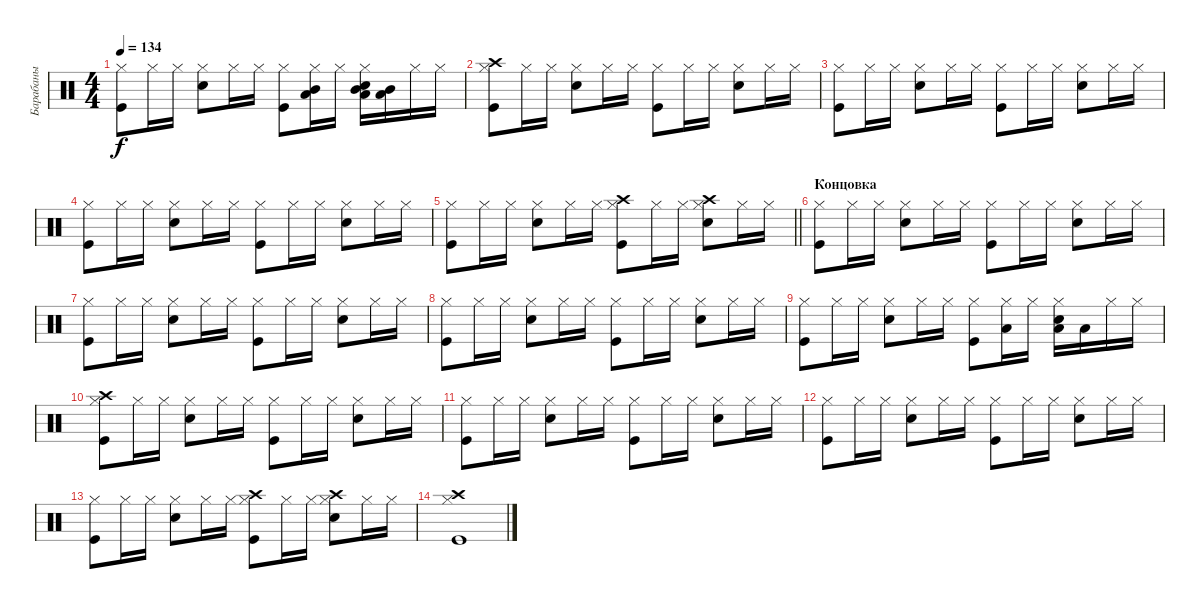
\track ("Барабаны" "Барабаны") {instrument percussion}
\staff {score}
\articulation defaults
\ts (4 4)
\tempo 134
\clef neutral
\ks c
("Kick (hit)" "Hi-Hat (closed)").8{dy f} "Hi-Hat (closed)".16 "Hi-Hat (closed)".16 ("Snare (hit) 2" "Hi-Hat (closed)").8 "Hi-Hat (closed)".16 "Hi-Hat (closed)".16 ("Kick (hit)" "Hi-Hat (closed)").8 ("Hi-Hat (closed)" "Low Tom (hit)" "Mid Tom (hit)").16 "Hi-Hat (closed)".16 ("Snare (hit) 2" "Hi-Hat (closed)" "Low Tom (hit)" "Mid Tom (hit)").16 ("Low Tom (hit)" "Mid Tom (hit)").16 "Hi-Hat (closed)".16 "Hi-Hat (closed)".16 |
("Kick (hit)" "Hi-Hat (closed)" "Crash high (hit)").8 "Hi-Hat (closed)".16 "Hi-Hat (closed)".16 ("Snare (hit) 2" "Hi-Hat (closed)").8 "Hi-Hat (closed)".16 "Hi-Hat (closed)".16 ("Kick (hit)" "Hi-Hat (closed)").8 "Hi-Hat (closed)".16 "Hi-Hat (closed)".16 ("Snare (hit) 2" "Hi-Hat (closed)").8 "Hi-Hat (closed)".16 "Hi-Hat (closed)".16 |
("Kick (hit)" "Hi-Hat (closed)").8 "Hi-Hat (closed)".16 "Hi-Hat (closed)".16 ("Snare (hit) 2" "Hi-Hat (closed)").8 "Hi-Hat (closed)".16 "Hi-Hat (closed)".16 ("Kick (hit)" "Hi-Hat (closed)").8 "Hi-Hat (closed)".16 "Hi-Hat (closed)".16 ("Snare (hit) 2" "Hi-Hat (closed)").8 "Hi-Hat (closed)".16 "Hi-Hat (closed)".16 |
("Kick (hit)" "Hi-Hat (closed)").8 "Hi-Hat (closed)".16 "Hi-Hat (closed)".16 ("Snare (hit) 2" "Hi-Hat (closed)").8 "Hi-Hat (closed)".16 "Hi-Hat (closed)".16 ("Kick (hit)" "Hi-Hat (closed)").8 "Hi-Hat (closed)".16 "Hi-Hat (closed)".16 ("Snare (hit) 2" "Hi-Hat (closed)").8 "Hi-Hat (closed)".16 "Hi-Hat (closed)".16 |
\barLineRight lightlight
("Kick (hit)" "Hi-Hat (closed)").8 "Hi-Hat (closed)".16 "Hi-Hat (closed)".16 ("Snare (hit) 2" "Hi-Hat (closed)").8 "Hi-Hat (closed)".16 "Hi-Hat (closed)".16 ("Kick (hit)" "Hi-Hat (closed)" "Crash high (hit)").8 "Hi-Hat (closed)".16 "Hi-Hat (closed)".16 ("Snare (hit) 2" "Hi-Hat (closed)" "Crash high (hit)").8 "Hi-Hat (closed)".16 "Hi-Hat (closed)".16 |
\section ("" "Концовка")
("Kick (hit)" "Hi-Hat (closed)").8 "Hi-Hat (closed)".16 "Hi-Hat (closed)".16 ("Snare (hit) 2" "Hi-Hat (closed)").8 "Hi-Hat (closed)".16 "Hi-Hat (closed)".16 ("Kick (hit)" "Hi-Hat (closed)").8 "Hi-Hat (closed)".16 "Hi-Hat (closed)".16 ("Snare (hit) 2" "Hi-Hat (closed)").8 "Hi-Hat (closed)".16 "Hi-Hat (closed)".16 |
("Kick (hit)" "Hi-Hat (closed)").8 "Hi-Hat (closed)".16 "Hi-Hat (closed)".16 ("Snare (hit) 2" "Hi-Hat (closed)").8 "Hi-Hat (closed)".16 "Hi-Hat (closed)".16 ("Kick (hit)" "Hi-Hat (closed)").8 "Hi-Hat (closed)".16 "Hi-Hat (closed)".16 ("Snare (hit) 2" "Hi-Hat (closed)").8 "Hi-Hat (closed)".16 "Hi-Hat (closed)".16 |
("Kick (hit)" "Hi-Hat (closed)").8 "Hi-Hat (closed)".16 "Hi-Hat (closed)".16 ("Snare (hit) 2" "Hi-Hat (closed)").8 "Hi-Hat (closed)".16 "Hi-Hat (closed)".16 ("Kick (hit)" "Hi-Hat (closed)").8 "Hi-Hat (closed)".16 "Hi-Hat (closed)".16 ("Snare (hit) 2" "Hi-Hat (closed)").8 "Hi-Hat (closed)".16 "Hi-Hat (closed)".16 |
("Kick (hit)" "Hi-Hat (closed)").8 "Hi-Hat (closed)".16 "Hi-Hat (closed)".16 ("Snare (hit) 2" "Hi-Hat (closed)").8 "Hi-Hat (closed)".16 "Hi-Hat (closed)".16 ("Kick (hit)" "Hi-Hat (closed)").8 ("Hi-Hat (closed)" "Low Tom (hit)").16 "Hi-Hat (closed)".16 ("Snare (hit) 2" "Hi-Hat (closed)" "Low Tom (hit)").16 "Low Tom (hit)".16 "Hi-Hat (closed)".16 "Hi-Hat (closed)".16 |
("Kick (hit)" "Hi-Hat (closed)" "Crash high (hit)").8 "Hi-Hat (closed)".16 "Hi-Hat (closed)".16 ("Snare (hit) 2" "Hi-Hat (closed)").8 "Hi-Hat (closed)".16 "Hi-Hat (closed)".16 ("Kick (hit)" "Hi-Hat (closed)").8 "Hi-Hat (closed)".16 "Hi-Hat (closed)".16 ("Snare (hit) 2" "Hi-Hat (closed)").8 "Hi-Hat (closed)".16 "Hi-Hat (closed)".16 |
("Kick (hit)" "Hi-Hat (closed)").8 "Hi-Hat (closed)".16 "Hi-Hat (closed)".16 ("Snare (hit) 2" "Hi-Hat (closed)").8 "Hi-Hat (closed)".16 "Hi-Hat (closed)".16 ("Kick (hit)" "Hi-Hat (closed)").8 "Hi-Hat (closed)".16 "Hi-Hat (closed)".16 ("Snare (hit) 2" "Hi-Hat (closed)").8 "Hi-Hat (closed)".16 "Hi-Hat (closed)".16 |
("Kick (hit)" "Hi-Hat (closed)").8 "Hi-Hat (closed)".16 "Hi-Hat (closed)".16 ("Snare (hit) 2" "Hi-Hat (closed)").8 "Hi-Hat (closed)".16 "Hi-Hat (closed)".16 ("Kick (hit)" "Hi-Hat (closed)").8 "Hi-Hat (closed)".16 "Hi-Hat (closed)".16 ("Snare (hit) 2" "Hi-Hat (closed)").8 "Hi-Hat (closed)".16 "Hi-Hat (closed)".16 |
("Kick (hit)" "Hi-Hat (closed)").8 "Hi-Hat (closed)".16 "Hi-Hat (closed)".16 ("Snare (hit) 2" "Hi-Hat (closed)").8 "Hi-Hat (closed)".16 "Hi-Hat (closed)".16 ("Kick (hit)" "Hi-Hat (closed)" "Crash high (hit)").8 "Hi-Hat (closed)".16 "Hi-Hat (closed)".16 ("Snare (hit) 2" "Hi-Hat (closed)" "Crash high (hit)").8 "Hi-Hat (closed)".16 "Hi-Hat (closed)".16 |
("Kick (hit)" "Hi-Hat (closed)" "Crash high (hit)").1
